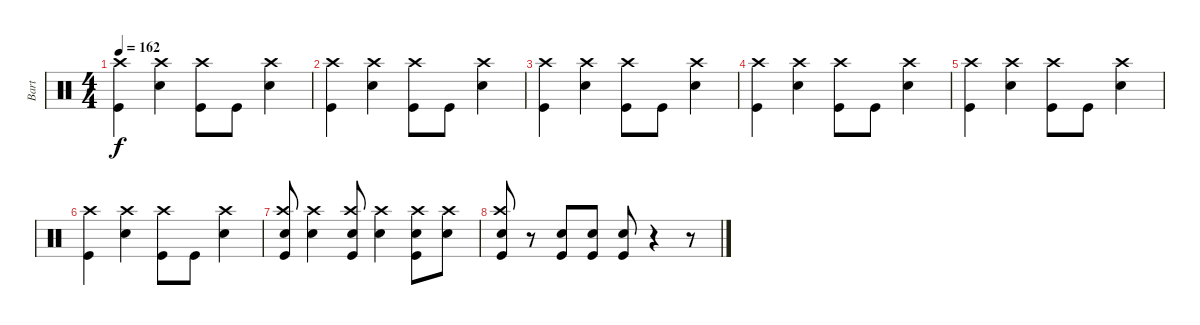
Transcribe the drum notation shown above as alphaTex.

\track ("Bart" "Bart") {instrument percussion}
\staff {score}
\articulation defaults
\ts (4 4)
\tempo 162
\clef neutral
\ks c
("Kick (hit)" "Crash high (hit)").4{dy f} ("Electric Snare (hit)" "Crash high (hit)").4 ("Kick (hit)" "Crash high (hit)").8 "Kick (hit)".8 ("Electric Snare (hit)" "Crash high (hit)").4 |
("Kick (hit)" "Crash high (hit)").4 ("Electric Snare (hit)" "Crash high (hit)").4 ("Kick (hit)" "Crash high (hit)").8 "Kick (hit)".8 ("Electric Snare (hit)" "Crash high (hit)").4 |
("Kick (hit)" "Crash high (hit)").4 ("Electric Snare (hit)" "Crash high (hit)").4 ("Kick (hit)" "Crash high (hit)").8 "Kick (hit)".8 ("Electric Snare (hit)" "Crash high (hit)").4 |
("Kick (hit)" "Crash high (hit)").4 ("Electric Snare (hit)" "Crash high (hit)").4 ("Kick (hit)" "Crash high (hit)").8 "Kick (hit)".8 ("Electric Snare (hit)" "Crash high (hit)").4 |
("Kick (hit)" "Crash high (hit)").4 ("Electric Snare (hit)" "Crash high (hit)").4 ("Kick (hit)" "Crash high (hit)").8 "Kick (hit)".8 ("Electric Snare (hit)" "Crash high (hit)").4 |
("Kick (hit)" "Crash high (hit)").4 ("Electric Snare (hit)" "Crash high (hit)").4 ("Kick (hit)" "Crash high (hit)").8 "Kick (hit)".8 ("Electric Snare (hit)" "Crash high (hit)").4 |
("Kick (hit)" "Electric Snare (hit)" "Crash high (hit)").8 ("Electric Snare (hit)" "Crash high (hit)").4 ("Kick (hit)" "Electric Snare (hit)" "Crash high (hit)").8 ("Electric Snare (hit)" "Crash high (hit)").4 ("Kick (hit)" "Electric Snare (hit)" "Crash high (hit)").8 ("Electric Snare (hit)" "Crash high (hit)").8 |
("Kick (hit)" "Electric Snare (hit)" "Crash high (hit)").8 r.8 ("Kick (hit)" "Electric Snare (hit)").8 ("Kick (hit)" "Electric Snare (hit)").8 ("Kick (hit)" "Electric Snare (hit)").8 r.4 r.8
